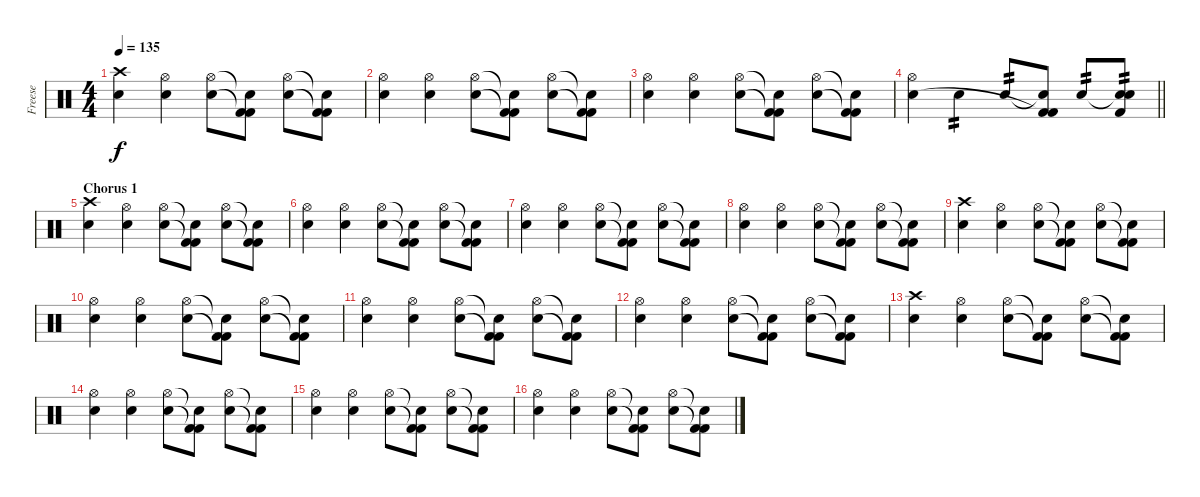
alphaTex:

\track ("Freese" "Freese") {instrument percussion}
\staff {score}
\articulation defaults
\ts (4 4)
\tempo 135
\clef neutral
\ks c
("Crash high (hit)" "Electric Snare (hit)").4{dy f} ("Hi-Hat (open)" "Electric Snare (hit)").4 ("Hi-Hat (open)" "Electric Snare (hit)").8 ("Snare (hit)"{t} "Kick (hit) 2"{t} "Kick (hit) 2").8 ("Hi-Hat (open)" "Electric Snare (hit)").8 ("Snare (hit)"{t} "Kick (hit) 2"{t} "Kick (hit) 2").8 |
("Hi-Hat (open)" "Electric Snare (hit)").4 ("Hi-Hat (open)" "Electric Snare (hit)").4 ("Hi-Hat (open)" "Electric Snare (hit)").8 ("Snare (hit)"{t} "Kick (hit) 2"{t} "Kick (hit) 2").8 ("Hi-Hat (open)" "Electric Snare (hit)").8 ("Snare (hit)"{t} "Kick (hit) 2"{t} "Kick (hit) 2").8 |
("Hi-Hat (open)" "Electric Snare (hit)").4 ("Hi-Hat (open)" "Electric Snare (hit)").4 ("Hi-Hat (open)" "Electric Snare (hit)").8 ("Snare (hit)"{t} "Kick (hit) 2"{t} "Kick (hit) 2").8 ("Hi-Hat (open)" "Electric Snare (hit)").8 ("Snare (hit)"{t} "Kick (hit) 2"{t} "Kick (hit) 2").8 |
\barLineRight lightlight
("Hi-Hat (open)" "Electric Snare (hit)").4 "Electric Snare (hit)".4{tp 2} "Electric Snare (hit)".8{tp 2} ("Snare (hit)"{t} "Kick (hit) 2"{t} "Kick (hit) 2").8 "Electric Snare (hit)".8{tp 2} ("Snare (hit)"{t} "Electric Snare (hit)" "Kick (hit) 2").8{tp 2} |
\section ("" "Chorus 1")
("Crash high (hit)" "Electric Snare (hit)").4 ("Hi-Hat (open)" "Electric Snare (hit)").4 ("Hi-Hat (open)" "Electric Snare (hit)").8 ("Snare (hit)"{t} "Kick (hit) 2"{t} "Kick (hit) 2").8 ("Hi-Hat (open)" "Electric Snare (hit)").8 ("Snare (hit)"{t} "Kick (hit) 2"{t} "Kick (hit) 2").8 |
("Hi-Hat (open)" "Electric Snare (hit)").4 ("Hi-Hat (open)" "Electric Snare (hit)").4 ("Hi-Hat (open)" "Electric Snare (hit)").8 ("Snare (hit)"{t} "Kick (hit) 2"{t} "Kick (hit) 2").8 ("Hi-Hat (open)" "Electric Snare (hit)").8 ("Snare (hit)"{t} "Kick (hit) 2"{t} "Kick (hit) 2").8 |
("Hi-Hat (open)" "Electric Snare (hit)").4 ("Hi-Hat (open)" "Electric Snare (hit)").4 ("Hi-Hat (open)" "Electric Snare (hit)").8 ("Snare (hit)"{t} "Kick (hit) 2"{t} "Kick (hit) 2").8 ("Hi-Hat (open)" "Electric Snare (hit)").8 ("Snare (hit)"{t} "Kick (hit) 2"{t} "Kick (hit) 2").8 |
("Hi-Hat (open)" "Electric Snare (hit)").4 ("Hi-Hat (open)" "Electric Snare (hit)").4 ("Hi-Hat (open)" "Electric Snare (hit)").8 ("Snare (hit)"{t} "Kick (hit) 2"{t} "Kick (hit) 2").8 ("Hi-Hat (open)" "Electric Snare (hit)").8 ("Snare (hit)"{t} "Kick (hit) 2"{t} "Kick (hit) 2").8 |
("Crash high (hit)" "Electric Snare (hit)").4 ("Hi-Hat (open)" "Electric Snare (hit)").4 ("Hi-Hat (open)" "Electric Snare (hit)").8 ("Snare (hit)"{t} "Kick (hit) 2"{t} "Kick (hit) 2").8 ("Hi-Hat (open)" "Electric Snare (hit)").8 ("Snare (hit)"{t} "Kick (hit) 2"{t} "Kick (hit) 2").8 |
("Hi-Hat (open)" "Electric Snare (hit)").4 ("Hi-Hat (open)" "Electric Snare (hit)").4 ("Hi-Hat (open)" "Electric Snare (hit)").8 ("Snare (hit)"{t} "Kick (hit) 2"{t} "Kick (hit) 2").8 ("Hi-Hat (open)" "Electric Snare (hit)").8 ("Snare (hit)"{t} "Kick (hit) 2"{t} "Kick (hit) 2").8 |
("Hi-Hat (open)" "Electric Snare (hit)").4 ("Hi-Hat (open)" "Electric Snare (hit)").4 ("Hi-Hat (open)" "Electric Snare (hit)").8 ("Snare (hit)"{t} "Kick (hit) 2"{t} "Kick (hit) 2").8 ("Hi-Hat (open)" "Electric Snare (hit)").8 ("Snare (hit)"{t} "Kick (hit) 2"{t} "Kick (hit) 2").8 |
("Hi-Hat (open)" "Electric Snare (hit)").4 ("Hi-Hat (open)" "Electric Snare (hit)").4 ("Hi-Hat (open)" "Electric Snare (hit)").8 ("Snare (hit)"{t} "Kick (hit) 2"{t} "Kick (hit) 2").8 ("Hi-Hat (open)" "Electric Snare (hit)").8 ("Snare (hit)"{t} "Kick (hit) 2"{t} "Kick (hit) 2").8 |
("Crash high (hit)" "Electric Snare (hit)").4 ("Hi-Hat (open)" "Electric Snare (hit)").4 ("Hi-Hat (open)" "Electric Snare (hit)").8 ("Snare (hit)"{t} "Kick (hit) 2"{t} "Kick (hit) 2").8 ("Hi-Hat (open)" "Electric Snare (hit)").8 ("Snare (hit)"{t} "Kick (hit) 2"{t} "Kick (hit) 2").8 |
("Hi-Hat (open)" "Electric Snare (hit)").4 ("Hi-Hat (open)" "Electric Snare (hit)").4 ("Hi-Hat (open)" "Electric Snare (hit)").8 ("Snare (hit)"{t} "Kick (hit) 2"{t} "Kick (hit) 2").8 ("Hi-Hat (open)" "Electric Snare (hit)").8 ("Snare (hit)"{t} "Kick (hit) 2"{t} "Kick (hit) 2").8 |
("Hi-Hat (open)" "Electric Snare (hit)").4 ("Hi-Hat (open)" "Electric Snare (hit)").4 ("Hi-Hat (open)" "Electric Snare (hit)").8 ("Snare (hit)"{t} "Kick (hit) 2"{t} "Kick (hit) 2").8 ("Hi-Hat (open)" "Electric Snare (hit)").8 ("Snare (hit)"{t} "Kick (hit) 2"{t} "Kick (hit) 2").8 |
("Hi-Hat (open)" "Electric Snare (hit)").4 ("Hi-Hat (open)" "Electric Snare (hit)").4 ("Hi-Hat (open)" "Electric Snare (hit)").8 ("Snare (hit)"{t} "Kick (hit) 2"{t} "Kick (hit) 2").8 ("Hi-Hat (open)" "Electric Snare (hit)").8 ("Snare (hit)"{t} "Kick (hit) 2"{t} "Kick (hit) 2").8
